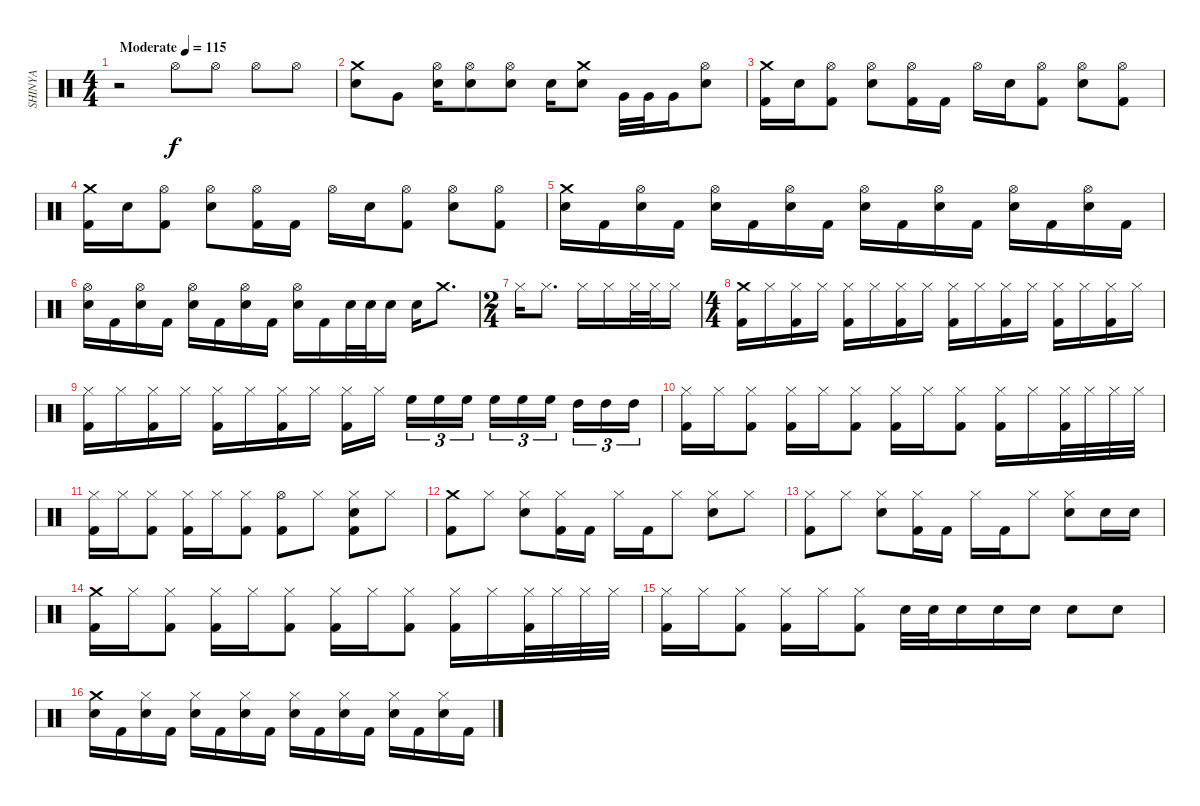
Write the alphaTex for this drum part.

\track ("SHINYA" "SHINYA") {instrument percussion}
\staff {score}
\articulation defaults
\ts (4 4)
\tempo (115 "Moderate")
\clef neutral
\ks c
r.2{dy f} "Hi-Hat (open)".8 "Hi-Hat (open)".8 "Hi-Hat (open)".8 "Hi-Hat (open)".8 |
("Crash medium (hit)" "Electric Snare (hit)").8 "Very Low Tom (hit)".8 ("Hi-Hat (open)" "Electric Snare (hit)").16 ("Hi-Hat (open)" "Electric Snare (hit)").8 ("Hi-Hat (open)" "Electric Snare (hit)").8 "Electric Snare (hit)".16 ("Crash medium (hit)" "Electric Snare (hit)").8 "Very Low Tom (hit)".32 "Very Low Tom (hit)".32 "Very Low Tom (hit)".16 ("Hi-Hat (open)" "Electric Snare (hit)").8 |
("Crash medium (hit)" "Kick (hit) 2").16 "Electric Snare (hit)".16 ("Hi-Hat (open)" "Kick (hit) 2").8 ("Hi-Hat (open)" "Electric Snare (hit)").8 ("Hi-Hat (open)" "Kick (hit) 2").16 "Kick (hit) 2".16 "Hi-Hat (open)".16 "Electric Snare (hit)".16 ("Hi-Hat (open)" "Kick (hit) 2").8 ("Hi-Hat (open)" "Electric Snare (hit)").8 ("Hi-Hat (open)" "Kick (hit) 2").8 |
("Crash medium (hit)" "Kick (hit) 2").16 "Electric Snare (hit)".16 ("Hi-Hat (open)" "Kick (hit) 2").8 ("Hi-Hat (open)" "Electric Snare (hit)").8 ("Hi-Hat (open)" "Kick (hit) 2").16 "Kick (hit) 2".16 "Hi-Hat (open)".16 "Electric Snare (hit)".16 ("Hi-Hat (open)" "Kick (hit) 2").8 ("Hi-Hat (open)" "Electric Snare (hit)").8 ("Hi-Hat (open)" "Kick (hit) 2").8 |
("Crash medium (hit)" "Electric Snare (hit)").16 "Kick (hit) 2".16 ("Hi-Hat (open)" "Electric Snare (hit)").16 "Kick (hit) 2".16 ("Hi-Hat (open)" "Electric Snare (hit)").16 "Kick (hit) 2".16 ("Hi-Hat (open)" "Electric Snare (hit)").16 "Kick (hit) 2".16 ("Hi-Hat (open)" "Electric Snare (hit)").16 "Kick (hit) 2".16 ("Hi-Hat (open)" "Electric Snare (hit)").16 "Kick (hit) 2".16 ("Hi-Hat (open)" "Electric Snare (hit)").16 "Kick (hit) 2".16 ("Hi-Hat (open)" "Electric Snare (hit)").16 "Kick (hit) 2".16 |
("Hi-Hat (open)" "Electric Snare (hit)").16 "Kick (hit) 2".16 ("Hi-Hat (open)" "Electric Snare (hit)").16 "Kick (hit) 2".16 ("Hi-Hat (open)" "Electric Snare (hit)").16 "Kick (hit) 2".16 ("Hi-Hat (open)" "Electric Snare (hit)").16 "Kick (hit) 2".16 ("Hi-Hat (open)" "Electric Snare (hit)").16 "Kick (hit) 2".16 "Electric Snare (hit)".32 "Electric Snare (hit)".32 "Electric Snare (hit)".16 "Electric Snare (hit)".16 "Crash medium (hit)".8{d} |
\ts (2 4)
"Hi-Hat (closed)".16 "Hi-Hat (closed)".8{d} "Hi-Hat (closed)".16 "Hi-Hat (closed)".16 "Hi-Hat (closed)".32 "Hi-Hat (closed)".32 "Hi-Hat (closed)".16 |
\ts (4 4)
("Crash medium (hit)" "Kick (hit) 2").16 "Hi-Hat (closed)".16 ("Hi-Hat (closed)" "Kick (hit) 2").16 "Hi-Hat (closed)".16 ("Hi-Hat (closed)" "Kick (hit) 2").16 "Hi-Hat (closed)".16 ("Hi-Hat (closed)" "Kick (hit) 2").16 "Hi-Hat (closed)".16 ("Hi-Hat (closed)" "Kick (hit) 2").16 "Hi-Hat (closed)".16 ("Hi-Hat (closed)" "Kick (hit) 2").16 "Hi-Hat (closed)".16 ("Hi-Hat (closed)" "Kick (hit) 2").16 "Hi-Hat (closed)".16 ("Hi-Hat (closed)" "Kick (hit) 2").16 "Hi-Hat (closed)".16 |
("Hi-Hat (closed)" "Kick (hit) 2").16 "Hi-Hat (closed)".16 ("Hi-Hat (closed)" "Kick (hit) 2").16 "Hi-Hat (closed)".16 ("Hi-Hat (closed)" "Kick (hit) 2").16 "Hi-Hat (closed)".16 ("Hi-Hat (closed)" "Kick (hit) 2").16 "Hi-Hat (closed)".16 ("Hi-Hat (closed)" "Kick (hit) 2").16 "Hi-Hat (closed)".16{beam splitsecondary} "High Floor Tom (hit)".16{tu (3 2)} "High Floor Tom (hit)".16{tu (3 2)} "High Floor Tom (hit)".16{tu (3 2)} "High Floor Tom (hit)".16{tu (3 2)} "High Floor Tom (hit)".16{tu (3 2)} "High Floor Tom (hit)".16{tu (3 2) beam splitsecondary} "High Tom (hit)".16{tu (3 2)} "High Tom (hit)".16{tu (3 2)} "High Tom (hit)".16{tu (3 2)} |
("Hi-Hat (closed)" "Kick (hit) 2").16 "Hi-Hat (closed)".16 ("Hi-Hat (closed)" "Kick (hit) 2").8 ("Hi-Hat (closed)" "Kick (hit) 2").16 "Hi-Hat (closed)".16 ("Hi-Hat (closed)" "Kick (hit) 2").8 ("Hi-Hat (closed)" "Kick (hit) 2").16 "Hi-Hat (closed)".16 ("Hi-Hat (closed)" "Kick (hit) 2").8 ("Hi-Hat (closed)" "Kick (hit) 2").16 "Hi-Hat (closed)".16 ("Hi-Hat (closed)" "Kick (hit) 2").32 "Hi-Hat (closed)".32 "Hi-Hat (closed)".32 "Hi-Hat (closed)".32 |
("Hi-Hat (closed)" "Kick (hit) 2").16 "Hi-Hat (closed)".16 ("Hi-Hat (closed)" "Kick (hit) 2").8 ("Hi-Hat (closed)" "Kick (hit) 2").16 "Hi-Hat (closed)".16 ("Hi-Hat (closed)" "Kick (hit) 2").8 ("Hi-Hat (open)" "Kick (hit) 2").8 "Hi-Hat (closed)".8 ("Hi-Hat (closed)" "Electric Snare (hit)" "Kick (hit) 2").8 "Hi-Hat (closed)".8 |
("Crash medium (hit)" "Kick (hit) 2").8 "Hi-Hat (closed)".8 ("Hi-Hat (closed)" "Electric Snare (hit)").8 ("Hi-Hat (closed)" "Kick (hit) 2").16 "Kick (hit) 2".16 "Hi-Hat (closed)".16 "Kick (hit) 2".16 "Hi-Hat (closed)".8 ("Hi-Hat (closed)" "Electric Snare (hit)").8 "Hi-Hat (closed)".8 |
("Hi-Hat (closed)" "Kick (hit) 2").8 "Hi-Hat (closed)".8 ("Hi-Hat (closed)" "Electric Snare (hit)").8 ("Hi-Hat (closed)" "Kick (hit) 2").16 "Kick (hit) 2".16 "Hi-Hat (closed)".16 "Kick (hit) 2".16 "Hi-Hat (closed)".8 ("Hi-Hat (closed)" "Electric Snare (hit)").8 "Electric Snare (hit)".16 "Electric Snare (hit)".16 |
("Crash medium (hit)" "Kick (hit) 2").16 "Hi-Hat (closed)".16 ("Hi-Hat (closed)" "Kick (hit) 2").8 ("Hi-Hat (closed)" "Kick (hit) 2").16 "Hi-Hat (closed)".16 ("Hi-Hat (closed)" "Kick (hit) 2").8 ("Hi-Hat (closed)" "Kick (hit) 2").16 "Hi-Hat (closed)".16 ("Hi-Hat (closed)" "Kick (hit) 2").8 ("Hi-Hat (closed)" "Kick (hit) 2").16 "Hi-Hat (closed)".16 ("Hi-Hat (closed)" "Kick (hit) 2").32 "Hi-Hat (closed)".32 "Hi-Hat (closed)".32 "Hi-Hat (closed)".32 |
("Hi-Hat (closed)" "Kick (hit) 2").16 "Hi-Hat (closed)".16 ("Hi-Hat (closed)" "Kick (hit) 2").8 ("Hi-Hat (closed)" "Kick (hit) 2").16 "Hi-Hat (closed)".16 ("Hi-Hat (closed)" "Kick (hit) 2").8 "Electric Snare (hit)".32 "Electric Snare (hit)".32 "Electric Snare (hit)".16 "Electric Snare (hit)".16 "Electric Snare (hit)".16 "Electric Snare (hit)".8 "Electric Snare (hit)".8 |
("Crash medium (hit)" "Electric Snare (hit)").16 "Kick (hit) 2".16 ("Hi-Hat (closed)" "Electric Snare (hit)").16 "Kick (hit) 2".16 ("Hi-Hat (closed)" "Electric Snare (hit)").16 "Kick (hit) 2".16 ("Hi-Hat (closed)" "Electric Snare (hit)").16 "Kick (hit) 2".16 ("Hi-Hat (closed)" "Electric Snare (hit)").16 "Kick (hit) 2".16 ("Hi-Hat (closed)" "Electric Snare (hit)").16 "Kick (hit) 2".16 ("Hi-Hat (closed)" "Electric Snare (hit)").16 "Kick (hit) 2".16 ("Hi-Hat (closed)" "Electric Snare (hit)").16 "Kick (hit) 2".16
